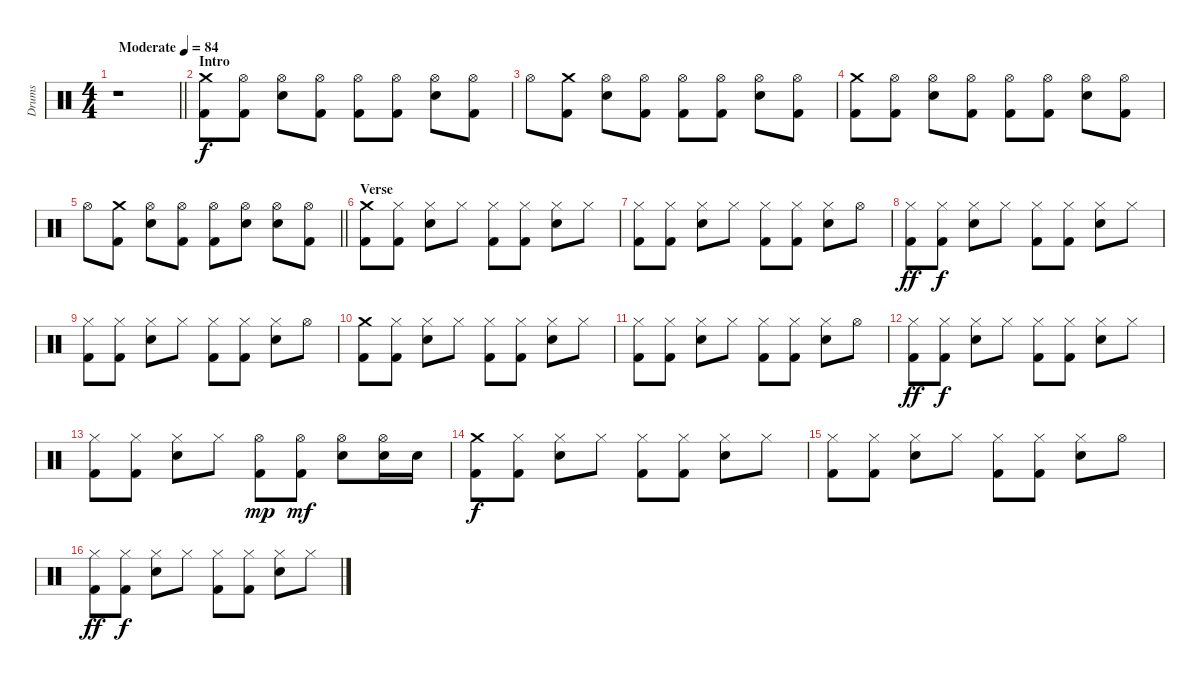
\track ("Drums" "Drums") {instrument percussion}
\staff {score}
\articulation defaults
\ts (4 4)
\tempo (84 "Moderate")
\clef neutral
\barLineRight lightlight
\ks c
r.1{dy f} |
\section ("" "Intro")
("Crash medium (hit)" "Kick (hit) 2").8 ("Hi-Hat (open)" "Kick (hit) 2").8 ("Hi-Hat (open)" "Electric Snare (hit)").8 ("Hi-Hat (open)" "Kick (hit) 2").8 ("Hi-Hat (open)" "Kick (hit) 2").8 ("Hi-Hat (open)" "Kick (hit) 2").8 ("Hi-Hat (open)" "Electric Snare (hit)").8 ("Hi-Hat (open)" "Kick (hit) 2").8 |
"Hi-Hat (open)".8 ("Crash medium (hit)" "Kick (hit) 2").8 ("Hi-Hat (open)" "Electric Snare (hit)").8 ("Hi-Hat (open)" "Kick (hit) 2").8 ("Hi-Hat (open)" "Kick (hit) 2").8 ("Hi-Hat (open)" "Kick (hit) 2").8 ("Hi-Hat (open)" "Electric Snare (hit)").8 ("Hi-Hat (open)" "Kick (hit) 2").8 |
("Crash medium (hit)" "Kick (hit) 2").8 ("Hi-Hat (open)" "Kick (hit) 2").8 ("Hi-Hat (open)" "Electric Snare (hit)").8 ("Hi-Hat (open)" "Kick (hit) 2").8 ("Hi-Hat (open)" "Kick (hit) 2").8 ("Hi-Hat (open)" "Kick (hit) 2").8 ("Hi-Hat (open)" "Electric Snare (hit)").8 ("Hi-Hat (open)" "Kick (hit) 2").8 |
\barLineRight lightlight "Hi-Hat (open)".8
("Crash medium (hit)" "Kick (hit) 2").8 ("Hi-Hat (open)" "Electric Snare (hit)").8 ("Hi-Hat (open)" "Kick (hit) 2").8 ("Hi-Hat (open)" "Kick (hit) 2").8 ("Hi-Hat (open)" "Electric Snare (hit)").8 ("Hi-Hat (open)" "Electric Snare (hit)").8 ("Hi-Hat (open)" "Kick (hit) 2").8 |
\section ("" "Verse")
("Crash medium (hit)" "Kick (hit) 2").8 ("Hi-Hat (closed)" "Kick (hit) 2").8 ("Hi-Hat (closed)" "Electric Snare (hit)").8 "Hi-Hat (closed)".8 ("Hi-Hat (closed)" "Kick (hit) 2").8 ("Hi-Hat (closed)" "Kick (hit) 2").8 ("Hi-Hat (closed)" "Electric Snare (hit)").8 "Hi-Hat (closed)".8 |
("Hi-Hat (closed)" "Kick (hit) 2").8 ("Hi-Hat (closed)" "Kick (hit) 2").8 ("Hi-Hat (closed)" "Electric Snare (hit)").8 "Hi-Hat (closed)".8 ("Hi-Hat (closed)" "Kick (hit) 2").8 ("Hi-Hat (closed)" "Kick (hit) 2").8 ("Hi-Hat (closed)" "Electric Snare (hit)").8 "Hi-Hat (open)".8 |
("Hi-Hat (closed)" "Kick (hit) 2").8{dy ff} ("Hi-Hat (closed)" "Kick (hit) 2").8{dy f} ("Hi-Hat (closed)" "Electric Snare (hit)").8 "Hi-Hat (closed)".8 ("Hi-Hat (closed)" "Kick (hit) 2").8 ("Hi-Hat (closed)" "Kick (hit) 2").8 ("Hi-Hat (closed)" "Electric Snare (hit)").8 "Hi-Hat (closed)".8 |
("Hi-Hat (closed)" "Kick (hit) 2").8 ("Hi-Hat (closed)" "Kick (hit) 2").8 ("Hi-Hat (closed)" "Electric Snare (hit)").8 "Hi-Hat (closed)".8 ("Hi-Hat (closed)" "Kick (hit) 2").8 ("Hi-Hat (closed)" "Kick (hit) 2").8 ("Hi-Hat (closed)" "Electric Snare (hit)").8 "Hi-Hat (open)".8 |
("Crash medium (hit)" "Kick (hit) 2").8 ("Hi-Hat (closed)" "Kick (hit) 2").8 ("Hi-Hat (closed)" "Electric Snare (hit)").8 "Hi-Hat (closed)".8 ("Hi-Hat (closed)" "Kick (hit) 2").8 ("Hi-Hat (closed)" "Kick (hit) 2").8 ("Hi-Hat (closed)" "Electric Snare (hit)").8 "Hi-Hat (closed)".8 |
("Hi-Hat (closed)" "Kick (hit) 2").8 ("Hi-Hat (closed)" "Kick (hit) 2").8 ("Hi-Hat (closed)" "Electric Snare (hit)").8 "Hi-Hat (closed)".8 ("Hi-Hat (closed)" "Kick (hit) 2").8 ("Hi-Hat (closed)" "Kick (hit) 2").8 ("Hi-Hat (closed)" "Electric Snare (hit)").8 "Hi-Hat (open)".8 |
("Hi-Hat (closed)" "Kick (hit) 2").8{dy ff} ("Hi-Hat (closed)" "Kick (hit) 2").8{dy f} ("Hi-Hat (closed)" "Electric Snare (hit)").8 "Hi-Hat (closed)".8 ("Hi-Hat (closed)" "Kick (hit) 2").8 ("Hi-Hat (closed)" "Kick (hit) 2").8 ("Hi-Hat (closed)" "Electric Snare (hit)").8 "Hi-Hat (closed)".8 |
("Hi-Hat (closed)" "Kick (hit) 2").8 ("Hi-Hat (closed)" "Kick (hit) 2").8 ("Hi-Hat (closed)" "Electric Snare (hit)").8 "Hi-Hat (closed)".8 ("Hi-Hat (open)" "Kick (hit) 2").8{dy mp} ("Hi-Hat (open)" "Kick (hit) 2").8{dy mf} ("Hi-Hat (open)" "Electric Snare (hit)").8 ("Hi-Hat (open)" "Electric Snare (hit)").16 "Electric Snare (hit)".16 |
("Crash medium (hit)" "Kick (hit) 2").8{dy f} ("Hi-Hat (closed)" "Kick (hit) 2").8 ("Hi-Hat (closed)" "Electric Snare (hit)").8 "Hi-Hat (closed)".8 ("Hi-Hat (closed)" "Kick (hit) 2").8 ("Hi-Hat (closed)" "Kick (hit) 2").8 ("Hi-Hat (closed)" "Electric Snare (hit)").8 "Hi-Hat (closed)".8 |
("Hi-Hat (closed)" "Kick (hit) 2").8 ("Hi-Hat (closed)" "Kick (hit) 2").8 ("Hi-Hat (closed)" "Electric Snare (hit)").8 "Hi-Hat (closed)".8 ("Hi-Hat (closed)" "Kick (hit) 2").8 ("Hi-Hat (closed)" "Kick (hit) 2").8 ("Hi-Hat (closed)" "Electric Snare (hit)").8 "Hi-Hat (open)".8 |
("Hi-Hat (closed)" "Kick (hit) 2").8{dy ff} ("Hi-Hat (closed)" "Kick (hit) 2").8{dy f} ("Hi-Hat (closed)" "Electric Snare (hit)").8 "Hi-Hat (closed)".8 ("Hi-Hat (closed)" "Kick (hit) 2").8 ("Hi-Hat (closed)" "Kick (hit) 2").8 ("Hi-Hat (closed)" "Electric Snare (hit)").8 "Hi-Hat (closed)".8
